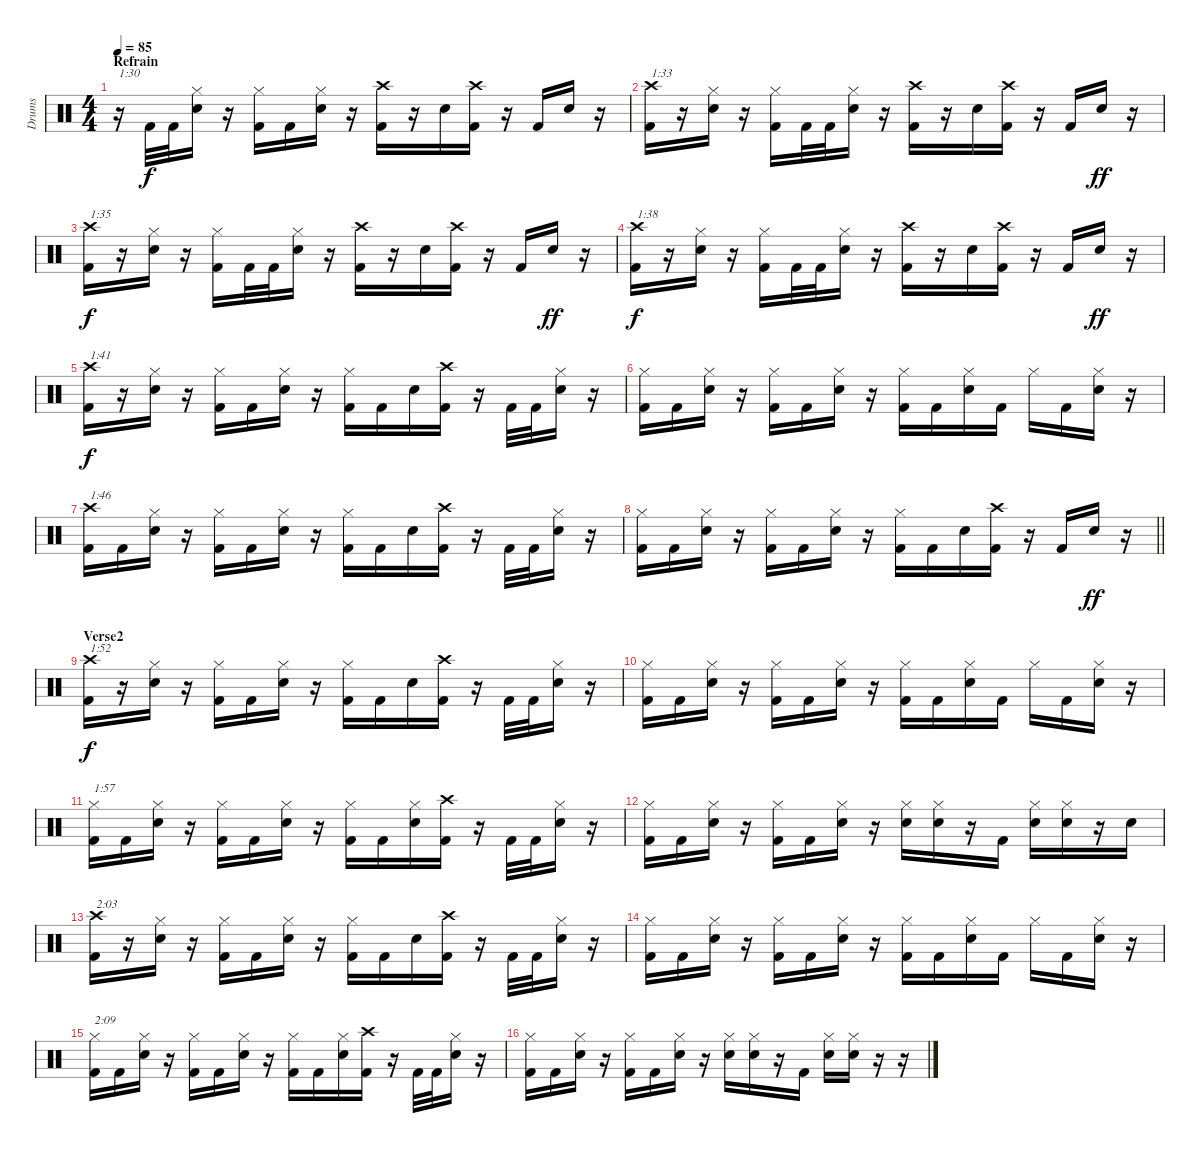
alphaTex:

\track ("Drums" "Drums") {instrument percussion}
\staff {score}
\articulation defaults
\ts (4 4)
\section ("" "Refrain")
\tempo 85
\clef neutral
\ks c
r.16{txt "1:30" dy f} "Kick (hit) 2".32 "Kick (hit) 2".32 ("Hi-Hat (closed)" "Snare (hit) 2").16 r.16 ("Hi-Hat (closed)" "Kick (hit) 2").16 "Kick (hit) 2".16 ("Hi-Hat (closed)" "Snare (hit) 2").16 r.16 ("Crash high (hit)" "Kick (hit) 2").16 r.16 "Snare (hit) 2".16 ("Crash high (hit)" "Kick (hit) 2").16 r.16 "Kick (hit) 2".16 "Snare (hit) 2".16 r.16 |
("Crash high (hit)" "Kick (hit) 2").16{txt "1:33"} r.16 ("Hi-Hat (closed)" "Snare (hit) 2").16 r.16 ("Hi-Hat (closed)" "Kick (hit) 2").16 "Kick (hit) 2".32 "Kick (hit) 2".32 ("Hi-Hat (closed)" "Snare (hit) 2").16 r.16 ("Crash high (hit)" "Kick (hit) 2").16 r.16 "Snare (hit) 2".16 ("Crash high (hit)" "Kick (hit) 2").16 r.16 "Kick (hit) 2".16 "Snare (hit) 2".16{dy ff} r.16 |
("Crash high (hit)" "Kick (hit) 2").16{txt "1:35" dy f} r.16 ("Hi-Hat (closed)" "Snare (hit) 2").16 r.16 ("Hi-Hat (closed)" "Kick (hit) 2").16 "Kick (hit) 2".32 "Kick (hit) 2".32 ("Hi-Hat (closed)" "Snare (hit) 2").16 r.16 ("Crash high (hit)" "Kick (hit) 2").16 r.16 "Snare (hit) 2".16 ("Crash high (hit)" "Kick (hit) 2").16 r.16 "Kick (hit) 2".16 "Snare (hit) 2".16{dy ff} r.16 |
("Crash high (hit)" "Kick (hit) 2").16{txt "1:38" dy f} r.16 ("Hi-Hat (closed)" "Snare (hit) 2").16 r.16 ("Hi-Hat (closed)" "Kick (hit) 2").16 "Kick (hit) 2".32 "Kick (hit) 2".32 ("Hi-Hat (closed)" "Snare (hit) 2").16 r.16 ("Crash high (hit)" "Kick (hit) 2").16 r.16 "Snare (hit) 2".16 ("Crash high (hit)" "Kick (hit) 2").16 r.16 "Kick (hit) 2".16 "Snare (hit) 2".16{dy ff} r.16 |
("Crash high (hit)" "Kick (hit) 2").16{txt "1:41" dy f} r.16 ("Hi-Hat (closed)" "Snare (hit) 2").16 r.16 ("Hi-Hat (closed)" "Kick (hit) 2").16 "Kick (hit) 2".16 ("Hi-Hat (closed)" "Snare (hit) 2").16 r.16 ("Hi-Hat (closed)" "Kick (hit) 2").16 "Kick (hit) 2".16 "Snare (hit) 2".16 ("Crash high (hit)" "Kick (hit) 2").16 r.16 "Kick (hit) 2".32 "Kick (hit) 2".32 ("Hi-Hat (closed)" "Snare (hit) 2").16 r.16 |
("Hi-Hat (closed)" "Kick (hit) 2").16 "Kick (hit) 2".16 ("Hi-Hat (closed)" "Snare (hit) 2").16 r.16 ("Hi-Hat (closed)" "Kick (hit) 2").16 "Kick (hit) 2".16 ("Hi-Hat (closed)" "Snare (hit) 2").16 r.16 ("Hi-Hat (closed)" "Kick (hit) 2").16 "Kick (hit) 2".16 ("Hi-Hat (closed)" "Snare (hit) 2").16 "Kick (hit) 2".16 "Hi-Hat (closed)".16 "Kick (hit) 2".16 ("Hi-Hat (closed)" "Snare (hit) 2").16 r.16 |
("Crash high (hit)" "Kick (hit) 2").16{txt "1:46"} "Kick (hit) 2".16 ("Hi-Hat (closed)" "Snare (hit) 2").16 r.16 ("Hi-Hat (closed)" "Kick (hit) 2").16 "Kick (hit) 2".16 ("Hi-Hat (closed)" "Snare (hit) 2").16 r.16 ("Hi-Hat (closed)" "Kick (hit) 2").16 "Kick (hit) 2".16 "Snare (hit) 2".16 ("Crash high (hit)" "Kick (hit) 2").16 r.16 "Kick (hit) 2".32 "Kick (hit) 2".32 ("Hi-Hat (closed)" "Snare (hit) 2").16 r.16 |
\barLineRight lightlight
("Hi-Hat (closed)" "Kick (hit) 2").16 "Kick (hit) 2".16 ("Hi-Hat (closed)" "Snare (hit) 2").16 r.16 ("Hi-Hat (closed)" "Kick (hit) 2").16 "Kick (hit) 2".16 ("Hi-Hat (closed)" "Snare (hit) 2").16 r.16 ("Hi-Hat (closed)" "Kick (hit) 2").16 "Kick (hit) 2".16 "Snare (hit) 2".16 ("Crash high (hit)" "Kick (hit) 2").16 r.16 "Kick (hit) 2".16 "Snare (hit) 2".16{dy ff} r.16 |
\section ("" "Verse2")
("Crash high (hit)" "Kick (hit) 2").16{txt "1:52" dy f} r.16 ("Hi-Hat (closed)" "Snare (hit) 2").16 r.16 ("Hi-Hat (closed)" "Kick (hit) 2").16 "Kick (hit) 2".16 ("Hi-Hat (closed)" "Snare (hit) 2").16 r.16 ("Hi-Hat (closed)" "Kick (hit) 2").16 "Kick (hit) 2".16 "Snare (hit) 2".16 ("Crash high (hit)" "Kick (hit) 2").16 r.16 "Kick (hit) 2".32 "Kick (hit) 2".32 ("Hi-Hat (closed)" "Snare (hit) 2").16 r.16 |
("Hi-Hat (closed)" "Kick (hit) 2").16 "Kick (hit) 2".16 ("Hi-Hat (closed)" "Snare (hit) 2").16 r.16 ("Hi-Hat (closed)" "Kick (hit) 2").16 "Kick (hit) 2".16 ("Hi-Hat (closed)" "Snare (hit) 2").16 r.16 ("Hi-Hat (closed)" "Kick (hit) 2").16 "Kick (hit) 2".16 ("Hi-Hat (closed)" "Snare (hit) 2").16 "Kick (hit) 2".16 "Hi-Hat (closed)".16 "Kick (hit) 2".16 ("Hi-Hat (closed)" "Snare (hit) 2").16 r.16 |
("Hi-Hat (closed)" "Kick (hit) 2").16{txt "1:57"} "Kick (hit) 2".16 ("Hi-Hat (closed)" "Snare (hit) 2").16 r.16 ("Hi-Hat (closed)" "Kick (hit) 2").16 "Kick (hit) 2".16 ("Hi-Hat (closed)" "Snare (hit) 2").16 r.16 ("Hi-Hat (closed)" "Kick (hit) 2").16 "Kick (hit) 2".16 ("Hi-Hat (closed)" "Snare (hit) 2").16 ("Crash high (hit)" "Kick (hit) 2").16 r.16 "Kick (hit) 2".32 "Kick (hit) 2".32 ("Hi-Hat (closed)" "Snare (hit) 2").16 r.16 |
("Hi-Hat (closed)" "Kick (hit) 2").16 "Kick (hit) 2".16 ("Hi-Hat (closed)" "Snare (hit) 2").16 r.16 ("Hi-Hat (closed)" "Kick (hit) 2").16 "Kick (hit) 2".16 ("Hi-Hat (closed)" "Snare (hit) 2").16 r.16 ("Hi-Hat (closed)" "Snare (hit) 2").16 ("Hi-Hat (closed)" "Snare (hit) 2").16 r.16 "Kick (hit) 2".16 ("Hi-Hat (closed)" "Snare (hit) 2").16 ("Hi-Hat (closed)" "Snare (hit) 2").16 r.16 "Snare (hit) 2".16 |
("Crash high (hit)" "Kick (hit) 2").16{txt "2:03"} r.16 ("Hi-Hat (closed)" "Snare (hit) 2").16 r.16 ("Hi-Hat (closed)" "Kick (hit) 2").16 "Kick (hit) 2".16 ("Hi-Hat (closed)" "Snare (hit) 2").16 r.16 ("Hi-Hat (closed)" "Kick (hit) 2").16 "Kick (hit) 2".16 "Snare (hit) 2".16 ("Crash high (hit)" "Kick (hit) 2").16 r.16 "Kick (hit) 2".32 "Kick (hit) 2".32 ("Hi-Hat (closed)" "Snare (hit) 2").16 r.16 |
("Hi-Hat (closed)" "Kick (hit) 2").16 "Kick (hit) 2".16 ("Hi-Hat (closed)" "Snare (hit) 2").16 r.16 ("Hi-Hat (closed)" "Kick (hit) 2").16 "Kick (hit) 2".16 ("Hi-Hat (closed)" "Snare (hit) 2").16 r.16 ("Hi-Hat (closed)" "Kick (hit) 2").16 "Kick (hit) 2".16 ("Hi-Hat (closed)" "Snare (hit) 2").16 "Kick (hit) 2".16 "Hi-Hat (closed)".16 "Kick (hit) 2".16 ("Hi-Hat (closed)" "Snare (hit) 2").16 r.16 |
("Hi-Hat (closed)" "Kick (hit) 2").16{txt "2:09"} "Kick (hit) 2".16 ("Hi-Hat (closed)" "Snare (hit) 2").16 r.16 ("Hi-Hat (closed)" "Kick (hit) 2").16 "Kick (hit) 2".16 ("Hi-Hat (closed)" "Snare (hit) 2").16 r.16 ("Hi-Hat (closed)" "Kick (hit) 2").16 "Kick (hit) 2".16 ("Hi-Hat (closed)" "Snare (hit) 2").16 ("Crash high (hit)" "Kick (hit) 2").16 r.16 "Kick (hit) 2".32 "Kick (hit) 2".32 ("Hi-Hat (closed)" "Snare (hit) 2").16 r.16 |
("Hi-Hat (closed)" "Kick (hit) 2").16 "Kick (hit) 2".16 ("Hi-Hat (closed)" "Snare (hit) 2").16 r.16 ("Hi-Hat (closed)" "Kick (hit) 2").16 "Kick (hit) 2".16 ("Hi-Hat (closed)" "Snare (hit) 2").16 r.16 ("Hi-Hat (closed)" "Snare (hit) 2").16 ("Hi-Hat (closed)" "Snare (hit) 2").16 r.16 "Kick (hit) 2".16 ("Hi-Hat (closed)" "Snare (hit) 2").16 ("Hi-Hat (closed)" "Snare (hit) 2").16 r.16 r.16
